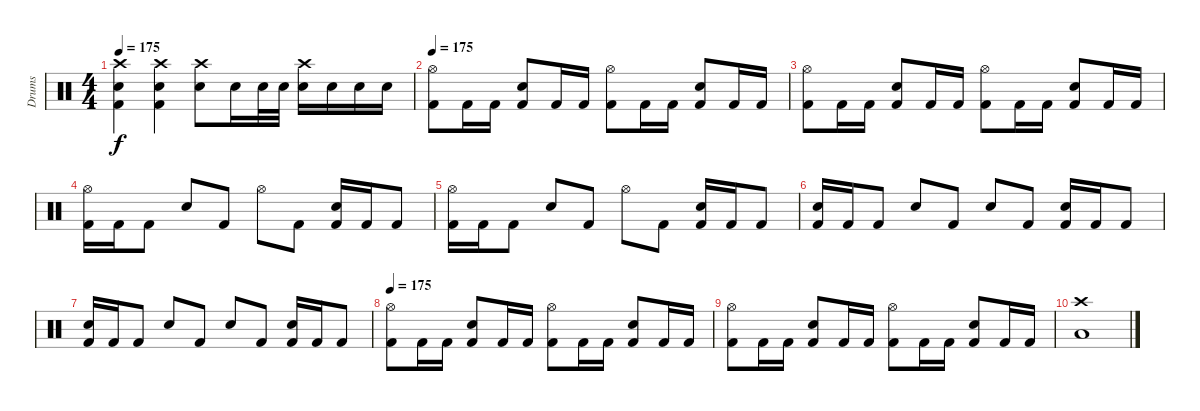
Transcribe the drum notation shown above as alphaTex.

\track ("Drums" "Drums") {instrument percussion}
\staff {score}
\articulation defaults
\ts (4 4)
\tempo 175
\clef neutral
\ks c
("Crash high (hit)" "Electric Snare (hit)" "Kick (hit) 2").4{dy f} ("Crash high (hit)" "Electric Snare (hit)" "Kick (hit) 2").4 ("Crash high (hit)" "Electric Snare (hit)").8 "Electric Snare (hit)".16 "Electric Snare (hit)".32 "Electric Snare (hit)".32 ("Crash high (hit)" "Electric Snare (hit)").16 "Electric Snare (hit)".16 "Electric Snare (hit)".16 "Electric Snare (hit)".16 |
\tempo 175
("Hi-Hat (open)" "Kick (hit) 2").8 "Kick (hit) 2".16 "Kick (hit) 2".16 ("Electric Snare (hit)" "Kick (hit) 2").8 "Kick (hit) 2".16 "Kick (hit) 2".16 ("Hi-Hat (open)" "Kick (hit) 2").8 "Kick (hit) 2".16 "Kick (hit) 2".16 ("Electric Snare (hit)" "Kick (hit) 2").8 "Kick (hit) 2".16 "Kick (hit) 2".16 |
("Hi-Hat (open)" "Kick (hit) 2").8 "Kick (hit) 2".16 "Kick (hit) 2".16 ("Electric Snare (hit)" "Kick (hit) 2").8 "Kick (hit) 2".16 "Kick (hit) 2".16 ("Hi-Hat (open)" "Kick (hit) 2").8 "Kick (hit) 2".16 "Kick (hit) 2".16 ("Electric Snare (hit)" "Kick (hit) 2").8 "Kick (hit) 2".16 "Kick (hit) 2".16 |
("Hi-Hat (open)" "Kick (hit) 2").16 "Kick (hit) 2".16 "Kick (hit) 2".8 "Electric Snare (hit)".8 "Kick (hit) 2".8 "Hi-Hat (open)".8 "Kick (hit) 2".8 ("Electric Snare (hit)" "Kick (hit) 2").16 "Kick (hit) 2".16 "Kick (hit) 2".8 |
("Hi-Hat (open)" "Kick (hit) 2").16 "Kick (hit) 2".16 "Kick (hit) 2".8 "Electric Snare (hit)".8 "Kick (hit) 2".8 "Hi-Hat (open)".8 "Kick (hit) 2".8 ("Electric Snare (hit)" "Kick (hit) 2").16 "Kick (hit) 2".16 "Kick (hit) 2".8 |
("Electric Snare (hit)" "Kick (hit) 2").16 "Kick (hit) 2".16 "Kick (hit) 2".8 "Electric Snare (hit)".8 "Kick (hit) 2".8 "Electric Snare (hit)".8 "Kick (hit) 2".8 ("Electric Snare (hit)" "Kick (hit) 2").16 "Kick (hit) 2".16 "Kick (hit) 2".8 |
("Electric Snare (hit)" "Kick (hit) 2").16 "Kick (hit) 2".16 "Kick (hit) 2".8 "Electric Snare (hit)".8 "Kick (hit) 2".8 "Electric Snare (hit)".8 "Kick (hit) 2".8 ("Electric Snare (hit)" "Kick (hit) 2").16 "Kick (hit) 2".16 "Kick (hit) 2".8 |
\tempo 175
("Hi-Hat (open)" "Kick (hit) 2").8 "Kick (hit) 2".16 "Kick (hit) 2".16 ("Electric Snare (hit)" "Kick (hit) 2").8 "Kick (hit) 2".16 "Kick (hit) 2".16 ("Hi-Hat (open)" "Kick (hit) 2").8 "Kick (hit) 2".16 "Kick (hit) 2".16 ("Electric Snare (hit)" "Kick (hit) 2").8 "Kick (hit) 2".16 "Kick (hit) 2".16 |
("Hi-Hat (open)" "Kick (hit) 2").8 "Kick (hit) 2".16 "Kick (hit) 2".16 ("Electric Snare (hit)" "Kick (hit) 2").8 "Kick (hit) 2".16 "Kick (hit) 2".16 ("Hi-Hat (open)" "Kick (hit) 2").8 "Kick (hit) 2".16 "Kick (hit) 2".16 ("Electric Snare (hit)" "Kick (hit) 2").8 "Kick (hit) 2".16 "Kick (hit) 2".16 |
("Crash high (hit)" "Low Floor Tom (hit)").1
